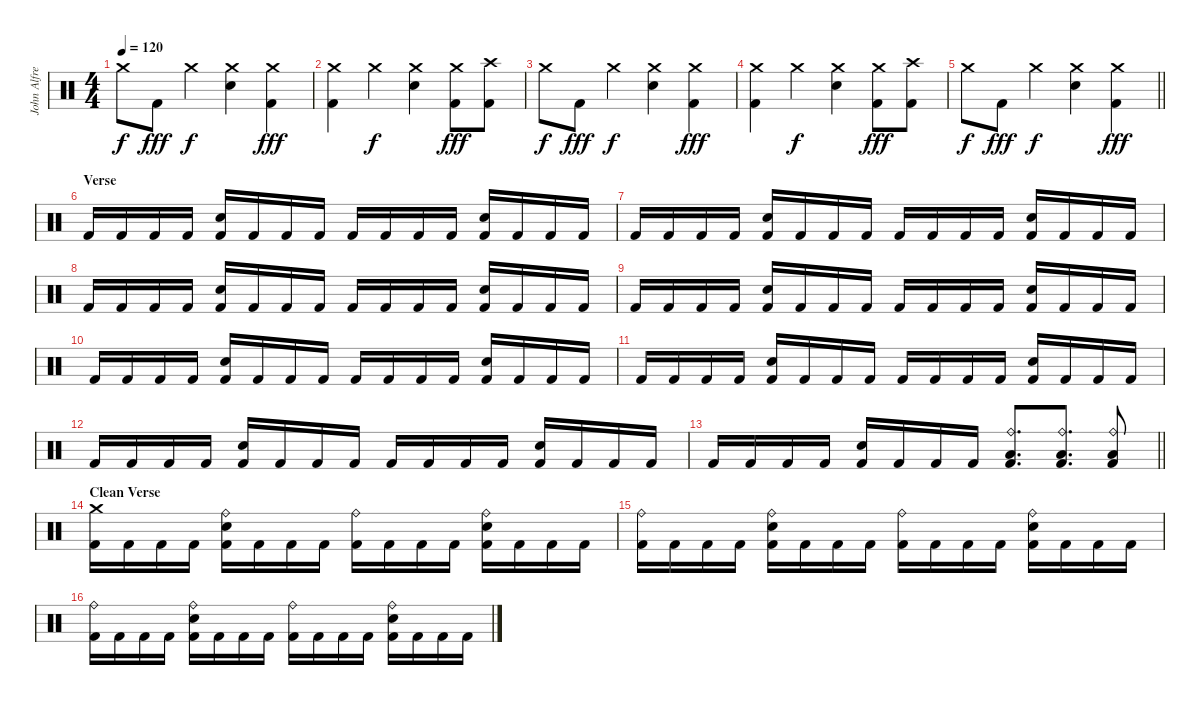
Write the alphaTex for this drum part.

\track ("John Alfredsson" "John Alfre") {instrument percussion}
\staff {score}
\articulation defaults
\ts (4 4)
\tempo 120
\clef neutral
\ks c "Crash medium (hit)".8{dy f} "Kick (hit) 2".8{dy fff} "Crash medium (hit)".4{dy f}
("Crash medium (hit)" "Electric Snare (hit)").4 ("Crash medium (hit)" "Kick (hit) 2").4{dy fff} |
("Crash medium (hit)" "Kick (hit) 2").4 "Crash medium (hit)".4{dy f} ("Crash medium (hit)" "Electric Snare (hit)").4 ("Crash medium (hit)" "Kick (hit) 2").8{dy fff} ("Crash high (hit)" "Kick (hit) 2").8 |
"Crash medium (hit)".8{dy f} "Kick (hit) 2".8{dy fff} "Crash medium (hit)".4{dy f} ("Crash medium (hit)" "Electric Snare (hit)").4 ("Crash medium (hit)" "Kick (hit) 2").4{dy fff} |
("Crash medium (hit)" "Kick (hit) 2").4 "Crash medium (hit)".4{dy f} ("Crash medium (hit)" "Electric Snare (hit)").4 ("Crash medium (hit)" "Kick (hit) 2").8{dy fff} ("Crash high (hit)" "Kick (hit) 2").8 |
\barLineRight lightlight "Crash medium (hit)".8{dy f} "Kick (hit) 2".8{dy fff} "Crash medium (hit)".4{dy f}
("Crash medium (hit)" "Electric Snare (hit)").4 ("Crash medium (hit)" "Kick (hit) 2").4{dy fff} |
\section ("" "Verse")
"Kick (hit) 2".16 "Kick (hit) 2".16 "Kick (hit) 2".16 "Kick (hit) 2".16 ("Electric Snare (hit)" "Kick (hit) 2").16 "Kick (hit) 2".16 "Kick (hit) 2".16 "Kick (hit) 2".16 "Kick (hit) 2".16 "Kick (hit) 2".16 "Kick (hit) 2".16 "Kick (hit) 2".16 ("Electric Snare (hit)" "Kick (hit) 2").16 "Kick (hit) 2".16 "Kick (hit) 2".16 "Kick (hit) 2".16 |
"Kick (hit) 2".16 "Kick (hit) 2".16 "Kick (hit) 2".16 "Kick (hit) 2".16 ("Electric Snare (hit)" "Kick (hit) 2").16 "Kick (hit) 2".16 "Kick (hit) 2".16 "Kick (hit) 2".16 "Kick (hit) 2".16 "Kick (hit) 2".16 "Kick (hit) 2".16 "Kick (hit) 2".16 ("Electric Snare (hit)" "Kick (hit) 2").16 "Kick (hit) 2".16 "Kick (hit) 2".16 "Kick (hit) 2".16 |
"Kick (hit) 2".16 "Kick (hit) 2".16 "Kick (hit) 2".16 "Kick (hit) 2".16 ("Electric Snare (hit)" "Kick (hit) 2").16 "Kick (hit) 2".16 "Kick (hit) 2".16 "Kick (hit) 2".16 "Kick (hit) 2".16 "Kick (hit) 2".16 "Kick (hit) 2".16 "Kick (hit) 2".16 ("Electric Snare (hit)" "Kick (hit) 2").16 "Kick (hit) 2".16 "Kick (hit) 2".16 "Kick (hit) 2".16 |
"Kick (hit) 2".16 "Kick (hit) 2".16 "Kick (hit) 2".16 "Kick (hit) 2".16 ("Electric Snare (hit)" "Kick (hit) 2").16 "Kick (hit) 2".16 "Kick (hit) 2".16 "Kick (hit) 2".16 "Kick (hit) 2".16 "Kick (hit) 2".16 "Kick (hit) 2".16 "Kick (hit) 2".16 ("Electric Snare (hit)" "Kick (hit) 2").16 "Kick (hit) 2".16 "Kick (hit) 2".16 "Kick (hit) 2".16 |
"Kick (hit) 2".16 "Kick (hit) 2".16 "Kick (hit) 2".16 "Kick (hit) 2".16 ("Electric Snare (hit)" "Kick (hit) 2").16 "Kick (hit) 2".16 "Kick (hit) 2".16 "Kick (hit) 2".16 "Kick (hit) 2".16 "Kick (hit) 2".16 "Kick (hit) 2".16 "Kick (hit) 2".16 ("Electric Snare (hit)" "Kick (hit) 2").16 "Kick (hit) 2".16 "Kick (hit) 2".16 "Kick (hit) 2".16 |
"Kick (hit) 2".16 "Kick (hit) 2".16 "Kick (hit) 2".16 "Kick (hit) 2".16 ("Electric Snare (hit)" "Kick (hit) 2").16 "Kick (hit) 2".16 "Kick (hit) 2".16 "Kick (hit) 2".16 "Kick (hit) 2".16 "Kick (hit) 2".16 "Kick (hit) 2".16 "Kick (hit) 2".16 ("Electric Snare (hit)" "Kick (hit) 2").16 "Kick (hit) 2".16 "Kick (hit) 2".16 "Kick (hit) 2".16 |
"Kick (hit) 2".16 "Kick (hit) 2".16 "Kick (hit) 2".16 "Kick (hit) 2".16 ("Electric Snare (hit)" "Kick (hit) 2").16 "Kick (hit) 2".16 "Kick (hit) 2".16 "Kick (hit) 2".16 "Kick (hit) 2".16 "Kick (hit) 2".16 "Kick (hit) 2".16 "Kick (hit) 2".16 ("Electric Snare (hit)" "Kick (hit) 2").16 "Kick (hit) 2".16 "Kick (hit) 2".16 "Kick (hit) 2".16 |
\barLineRight lightlight "Kick (hit) 2".16 "Kick (hit) 2".16 "Kick (hit) 2".16 "Kick (hit) 2".16
("Electric Snare (hit)" "Kick (hit) 2").16 "Kick (hit) 2".16 "Kick (hit) 2".16 "Kick (hit) 2".16 ("Ride (bell)" "Low Floor Tom (hit)" "Kick (hit) 2").8{d} ("Ride (bell)" "Low Floor Tom (hit)" "Kick (hit) 2").8{d} ("Ride (bell)" "Low Floor Tom (hit)" "Kick (hit) 2").8 |
\section ("" "Clean Verse")
("Crash medium (hit)" "Kick (hit) 2").16 "Kick (hit) 2".16 "Kick (hit) 2".16 "Kick (hit) 2".16 ("Ride (bell)" "Electric Snare (hit)" "Kick (hit) 2").16 "Kick (hit) 2".16 "Kick (hit) 2".16 "Kick (hit) 2".16 ("Ride (bell)" "Kick (hit) 2").16 "Kick (hit) 2".16 "Kick (hit) 2".16 "Kick (hit) 2".16 ("Ride (bell)" "Electric Snare (hit)" "Kick (hit) 2").16 "Kick (hit) 2".16 "Kick (hit) 2".16 "Kick (hit) 2".16 |
("Ride (bell)" "Kick (hit) 2").16 "Kick (hit) 2".16 "Kick (hit) 2".16 "Kick (hit) 2".16 ("Ride (bell)" "Electric Snare (hit)" "Kick (hit) 2").16 "Kick (hit) 2".16 "Kick (hit) 2".16 "Kick (hit) 2".16 ("Ride (bell)" "Kick (hit) 2").16 "Kick (hit) 2".16 "Kick (hit) 2".16 "Kick (hit) 2".16 ("Ride (bell)" "Electric Snare (hit)" "Kick (hit) 2").16 "Kick (hit) 2".16 "Kick (hit) 2".16 "Kick (hit) 2".16 |
("Ride (bell)" "Kick (hit) 2").16 "Kick (hit) 2".16 "Kick (hit) 2".16 "Kick (hit) 2".16 ("Ride (bell)" "Electric Snare (hit)" "Kick (hit) 2").16 "Kick (hit) 2".16 "Kick (hit) 2".16 "Kick (hit) 2".16 ("Ride (bell)" "Kick (hit) 2").16 "Kick (hit) 2".16 "Kick (hit) 2".16 "Kick (hit) 2".16 ("Ride (bell)" "Electric Snare (hit)" "Kick (hit) 2").16 "Kick (hit) 2".16 "Kick (hit) 2".16 "Kick (hit) 2".16
